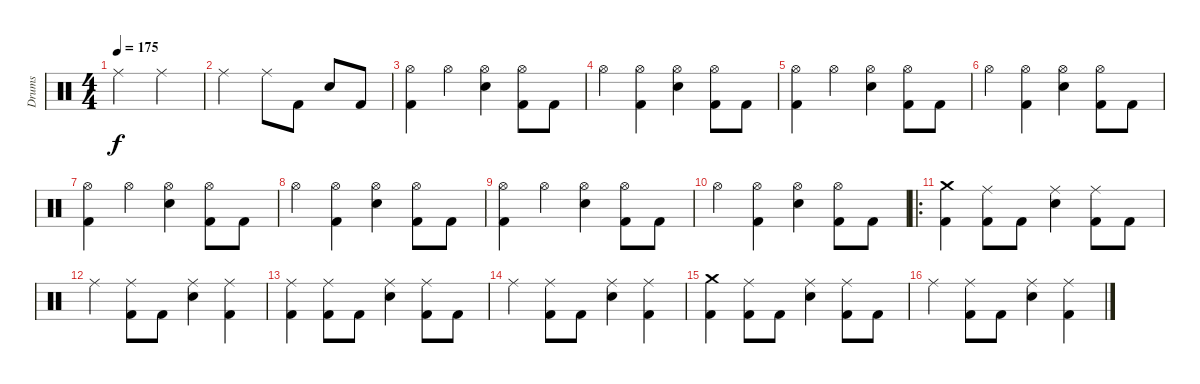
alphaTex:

\track ("Drums" "Drums") {instrument percussion}
\staff {score}
\articulation defaults
\ts (4 4)
\tempo 175
\clef neutral
\ks c "Ride (middle)".2{dy f} "Ride (middle)".2
|
"Ride (middle)".2 "Ride (middle)".8 "Kick (hit) 2".8 "Snare (hit) 2".8 "Kick (hit) 2".8 |
("Hi-Hat (open)" "Kick (hit) 2").4 "Hi-Hat (open)".4 ("Hi-Hat (open)" "Snare (hit) 2").4 ("Hi-Hat (open)" "Kick (hit) 2").8 "Kick (hit) 2".8 |
"Hi-Hat (open)".4 ("Hi-Hat (open)" "Kick (hit) 2").4 ("Hi-Hat (open)" "Snare (hit) 2").4 ("Hi-Hat (open)" "Kick (hit) 2").8 "Kick (hit) 2".8 |
("Hi-Hat (open)" "Kick (hit) 2").4 "Hi-Hat (open)".4 ("Hi-Hat (open)" "Snare (hit) 2").4 ("Hi-Hat (open)" "Kick (hit) 2").8 "Kick (hit) 2".8 |
"Hi-Hat (open)".4 ("Hi-Hat (open)" "Kick (hit) 2").4 ("Hi-Hat (open)" "Snare (hit) 2").4 ("Hi-Hat (open)" "Kick (hit) 2").8 "Kick (hit) 2".8 |
("Hi-Hat (open)" "Kick (hit) 2").4 "Hi-Hat (open)".4 ("Hi-Hat (open)" "Snare (hit) 2").4 ("Hi-Hat (open)" "Kick (hit) 2").8 "Kick (hit) 2".8 |
"Hi-Hat (open)".4 ("Hi-Hat (open)" "Kick (hit) 2").4 ("Hi-Hat (open)" "Snare (hit) 2").4 ("Hi-Hat (open)" "Kick (hit) 2").8 "Kick (hit) 2".8 |
("Hi-Hat (open)" "Kick (hit) 2").4 "Hi-Hat (open)".4 ("Hi-Hat (open)" "Snare (hit) 2").4 ("Hi-Hat (open)" "Kick (hit) 2").8 "Kick (hit) 2".8 |
"Hi-Hat (open)".4 ("Hi-Hat (open)" "Kick (hit) 2").4 ("Hi-Hat (open)" "Snare (hit) 2").4 ("Hi-Hat (open)" "Kick (hit) 2").8 "Kick (hit) 2".8 |
\ro
("Crash medium (hit)" "Kick (hit) 2").4 ("Ride (middle)" "Kick (hit) 2").8 "Kick (hit) 2".8 ("Ride (middle)" "Snare (hit) 2").4 ("Ride (middle)" "Kick (hit) 2").8 "Kick (hit) 2".8 |
"Ride (middle)".4 ("Ride (middle)" "Kick (hit) 2").8 "Kick (hit) 2".8 ("Ride (middle)" "Snare (hit) 2").4 ("Ride (middle)" "Kick (hit) 2").4 |
("Ride (middle)" "Kick (hit) 2").4 ("Ride (middle)" "Kick (hit) 2").8 "Kick (hit) 2".8 ("Ride (middle)" "Snare (hit) 2").4 ("Ride (middle)" "Kick (hit) 2").8 "Kick (hit) 2".8 |
"Ride (middle)".4 ("Ride (middle)" "Kick (hit) 2").8 "Kick (hit) 2".8 ("Ride (middle)" "Snare (hit) 2").4 ("Ride (middle)" "Kick (hit) 2").4 |
("Crash medium (hit)" "Kick (hit) 2").4 ("Ride (middle)" "Kick (hit) 2").8 "Kick (hit) 2".8 ("Ride (middle)" "Snare (hit) 2").4 ("Ride (middle)" "Kick (hit) 2").8 "Kick (hit) 2".8 |
"Ride (middle)".4 ("Ride (middle)" "Kick (hit) 2").8 "Kick (hit) 2".8 ("Ride (middle)" "Snare (hit) 2").4 ("Ride (middle)" "Kick (hit) 2").4
